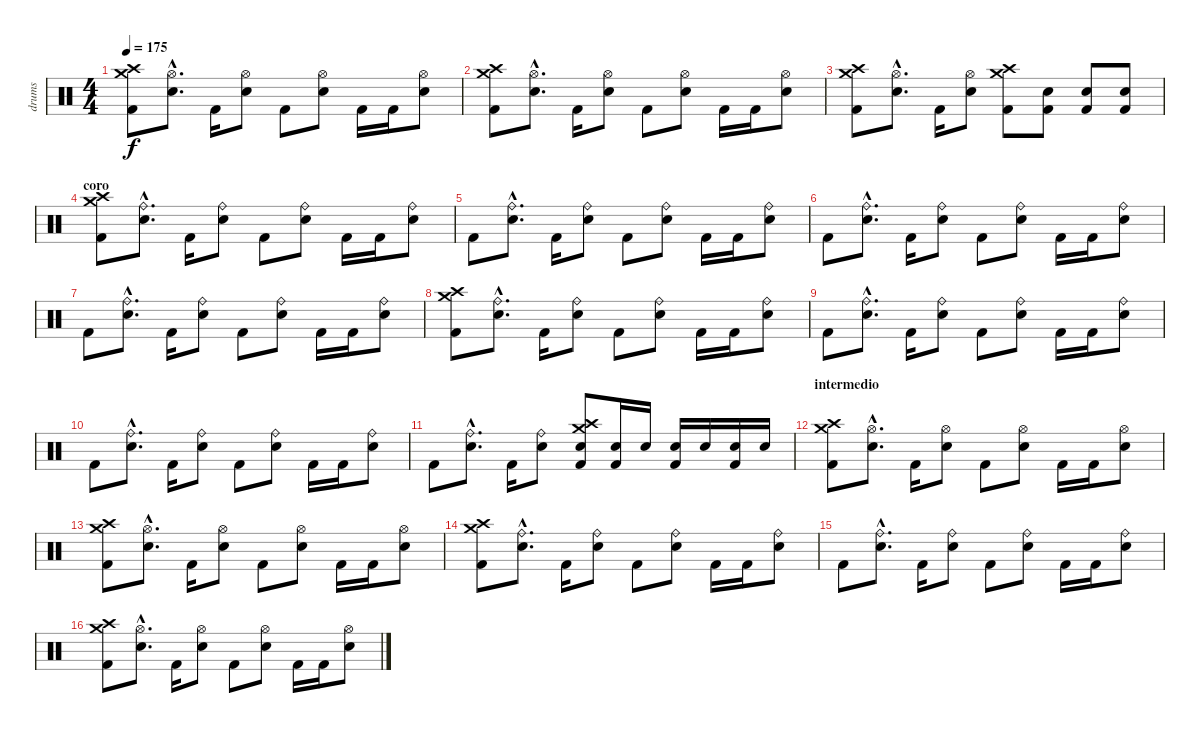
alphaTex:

\track ("drums" "drums") {instrument percussion}
\staff {score}
\articulation defaults
\ts (4 4)
\tempo 175
\clef neutral
\ks c
("Kick (hit) 2" "Crash high (hit)" "Crash medium (hit)").8{dy f} ("Hi-Hat (open)"{hac} "Electric Snare (hit)"{hac}).8{d} "Kick (hit) 2".16 ("Hi-Hat (open)" "Electric Snare (hit)").8 "Kick (hit) 2".8 ("Hi-Hat (open)" "Electric Snare (hit)").8 "Kick (hit) 2".16 "Kick (hit) 2".16 ("Hi-Hat (open)" "Electric Snare (hit)").8 |
("Kick (hit) 2" "Crash high (hit)" "Crash medium (hit)").8 ("Hi-Hat (open)"{hac} "Electric Snare (hit)"{hac}).8{d} "Kick (hit) 2".16 ("Hi-Hat (open)" "Electric Snare (hit)").8 "Kick (hit) 2".8 ("Hi-Hat (open)" "Electric Snare (hit)").8 "Kick (hit) 2".16 "Kick (hit) 2".16 ("Hi-Hat (open)" "Electric Snare (hit)").8 |
("Kick (hit) 2" "Crash high (hit)" "Crash medium (hit)").8 ("Hi-Hat (open)"{hac} "Electric Snare (hit)"{hac}).8{d} "Kick (hit) 2".16 ("Hi-Hat (open)" "Electric Snare (hit)").8 ("Kick (hit) 2" "Crash medium (hit)" "Crash high (hit)").8 ("Kick (hit) 2" "Electric Snare (hit)").8 ("Kick (hit) 2" "Electric Snare (hit)").8 ("Kick (hit) 2" "Electric Snare (hit)").8 |
\section ("" "coro")
("Kick (hit) 2" "Crash high (hit)" "Crash medium (hit)").8 ("Ride (bell)"{hac} "Electric Snare (hit)"{hac}).8{d} "Kick (hit) 2".16 ("Ride (bell)" "Electric Snare (hit)").8 "Kick (hit) 2".8 ("Ride (bell)" "Electric Snare (hit)").8 "Kick (hit) 2".16 "Kick (hit) 2".16 ("Ride (bell)" "Electric Snare (hit)").8 |
"Kick (hit) 2".8 ("Ride (bell)"{hac} "Electric Snare (hit)"{hac}).8{d} "Kick (hit) 2".16 ("Ride (bell)" "Electric Snare (hit)").8 "Kick (hit) 2".8 ("Ride (bell)" "Electric Snare (hit)").8 "Kick (hit) 2".16 "Kick (hit) 2".16 ("Ride (bell)" "Electric Snare (hit)").8 |
"Kick (hit) 2".8 ("Ride (bell)"{hac} "Electric Snare (hit)"{hac}).8{d} "Kick (hit) 2".16 ("Ride (bell)" "Electric Snare (hit)").8 "Kick (hit) 2".8 ("Ride (bell)" "Electric Snare (hit)").8 "Kick (hit) 2".16 "Kick (hit) 2".16 ("Ride (bell)" "Electric Snare (hit)").8 |
"Kick (hit) 2".8 ("Ride (bell)"{hac} "Electric Snare (hit)"{hac}).8{d} "Kick (hit) 2".16 ("Ride (bell)" "Electric Snare (hit)").8 "Kick (hit) 2".8 ("Ride (bell)" "Electric Snare (hit)").8 "Kick (hit) 2".16 "Kick (hit) 2".16 ("Ride (bell)" "Electric Snare (hit)").8 |
("Kick (hit) 2" "Crash high (hit)" "Crash medium (hit)").8 ("Ride (bell)"{hac} "Electric Snare (hit)"{hac}).8{d} "Kick (hit) 2".16 ("Ride (bell)" "Electric Snare (hit)").8 "Kick (hit) 2".8 ("Ride (bell)" "Electric Snare (hit)").8 "Kick (hit) 2".16 "Kick (hit) 2".16 ("Ride (bell)" "Electric Snare (hit)").8 |
"Kick (hit) 2".8 ("Ride (bell)"{hac} "Electric Snare (hit)"{hac}).8{d} "Kick (hit) 2".16 ("Ride (bell)" "Electric Snare (hit)").8 "Kick (hit) 2".8 ("Ride (bell)" "Electric Snare (hit)").8 "Kick (hit) 2".16 "Kick (hit) 2".16 ("Ride (bell)" "Electric Snare (hit)").8 |
"Kick (hit) 2".8 ("Ride (bell)"{hac} "Electric Snare (hit)"{hac}).8{d} "Kick (hit) 2".16 ("Ride (bell)" "Electric Snare (hit)").8 "Kick (hit) 2".8 ("Ride (bell)" "Electric Snare (hit)").8 "Kick (hit) 2".16 "Kick (hit) 2".16 ("Ride (bell)" "Electric Snare (hit)").8 |
"Kick (hit) 2".8 ("Ride (bell)"{hac} "Electric Snare (hit)"{hac}).8{d} "Kick (hit) 2".16 ("Ride (bell)" "Electric Snare (hit)").8 ("Crash high (hit)" "Crash medium (hit)" "Electric Snare (hit)" "Kick (hit) 2").8 ("Electric Snare (hit)" "Kick (hit) 2").16 "Electric Snare (hit)".16 ("Electric Snare (hit)" "Kick (hit) 2").16 "Electric Snare (hit)".16 ("Electric Snare (hit)" "Kick (hit) 2").16 "Electric Snare (hit)".16 |
\section ("" "intermedio ")
("Kick (hit) 2" "Crash high (hit)" "Crash medium (hit)").8 ("Hi-Hat (open)"{hac} "Electric Snare (hit)"{hac}).8{d} "Kick (hit) 2".16 ("Hi-Hat (open)" "Electric Snare (hit)").8 "Kick (hit) 2".8 ("Hi-Hat (open)" "Electric Snare (hit)").8 "Kick (hit) 2".16 "Kick (hit) 2".16 ("Hi-Hat (open)" "Electric Snare (hit)").8 |
("Kick (hit) 2" "Crash high (hit)" "Crash medium (hit)").8 ("Hi-Hat (open)"{hac} "Electric Snare (hit)"{hac}).8{d} "Kick (hit) 2".16 ("Hi-Hat (open)" "Electric Snare (hit)").8 "Kick (hit) 2".8 ("Hi-Hat (open)" "Electric Snare (hit)").8 "Kick (hit) 2".16 "Kick (hit) 2".16 ("Hi-Hat (open)" "Electric Snare (hit)").8 |
("Kick (hit) 2" "Crash high (hit)" "Crash medium (hit)").8 ("Ride (bell)"{hac} "Electric Snare (hit)"{hac}).8{d} "Kick (hit) 2".16 ("Ride (bell)" "Electric Snare (hit)").8 "Kick (hit) 2".8 ("Ride (bell)" "Electric Snare (hit)").8 "Kick (hit) 2".16 "Kick (hit) 2".16 ("Ride (bell)" "Electric Snare (hit)").8 |
"Kick (hit) 2".8 ("Ride (bell)"{hac} "Electric Snare (hit)"{hac}).8{d} "Kick (hit) 2".16 ("Ride (bell)" "Electric Snare (hit)").8 "Kick (hit) 2".8 ("Ride (bell)" "Electric Snare (hit)").8 "Kick (hit) 2".16 "Kick (hit) 2".16 ("Ride (bell)" "Electric Snare (hit)").8 |
("Kick (hit) 2" "Crash high (hit)" "Crash medium (hit)").8 ("Hi-Hat (open)"{hac} "Electric Snare (hit)"{hac}).8{d} "Kick (hit) 2".16 ("Hi-Hat (open)" "Electric Snare (hit)").8 "Kick (hit) 2".8 ("Hi-Hat (open)" "Electric Snare (hit)").8 "Kick (hit) 2".16 "Kick (hit) 2".16 ("Hi-Hat (open)" "Electric Snare (hit)").8
